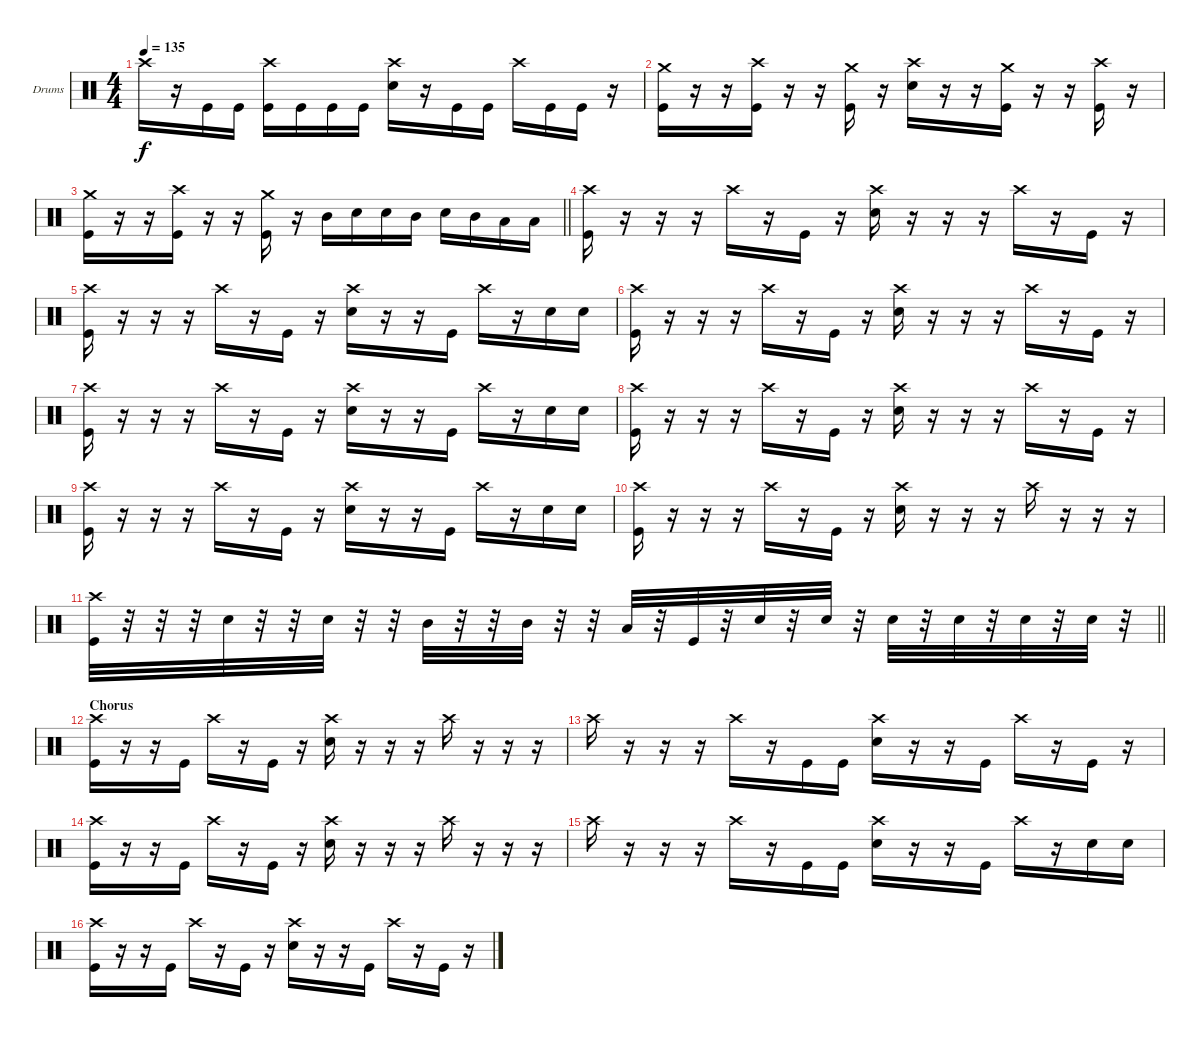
\bracketExtendMode groupsimilarinstruments
\firstSystemTrackNameOrientation horizontal
\otherSystemsTrackNameOrientation horizontal
\track ("Drumkit" "Drums") {instrument percussion}
\staff {score}
\articulation defaults
\ts (4 4)
\tempo 135
\clef neutral
\ks c "Crash high (hit)".16{dy f}
r.16 "Kick (hit)".16 "Kick (hit)".16 ("Crash high (hit)" "Kick (hit)").16 "Kick (hit)".16 "Kick (hit)".16 "Kick (hit)".16 ("Crash high (hit)" "Snare (hit) 2").16 r.16 "Kick (hit)".16 "Kick (hit)".16 "Crash high (hit)".16 "Kick (hit)".16 "Kick (hit)".16 r.16 |
("Crash medium (hit)" "Kick (hit)").16 r.16 r.16 ("Crash high (hit)" "Kick (hit)").16 r.16 r.16 ("Crash medium (hit)" "Kick (hit)").16 r.16 ("Crash high (hit)" "Snare (hit) 2").16 r.16 r.16 ("Crash medium (hit)" "Kick (hit)").16 r.16 r.16 ("Crash high (hit)" "Kick (hit)").16 r.16 |
\barLineRight lightlight
("Crash medium (hit)" "Kick (hit)").16 r.16 r.16 ("Crash high (hit)" "Kick (hit)").16 r.16 r.16 ("Crash medium (hit)" "Kick (hit)").16 r.16 "Mid Tom (hit)".16 "Snare (hit) 2".16 "Snare (hit) 2".16 "Mid Tom (hit)".16 "Snare (hit) 2".16 "Mid Tom (hit)".16 "Low Tom (hit)".16 "Low Tom (hit)".16 |
("Crash high (hit)" "Kick (hit)").16 r.16 r.16 r.16 "Crash high (hit)".16 r.16 "Kick (hit)".16 r.16 ("Crash high (hit)" "Snare (hit) 2").16 r.16 r.16 r.16 "Crash high (hit)".16 r.16 "Kick (hit)".16 r.16 |
("Crash high (hit)" "Kick (hit)").16 r.16 r.16 r.16 "Crash high (hit)".16 r.16 "Kick (hit)".16 r.16 ("Crash high (hit)" "Snare (hit) 2").16 r.16 r.16 "Kick (hit)".16 "Crash high (hit)".16 r.16 "Snare (hit) 2".16 "Snare (hit) 2".16 |
("Crash high (hit)" "Kick (hit)").16 r.16 r.16 r.16 "Crash high (hit)".16 r.16 "Kick (hit)".16 r.16 ("Crash high (hit)" "Snare (hit) 2").16 r.16 r.16 r.16 "Crash high (hit)".16 r.16 "Kick (hit)".16 r.16 |
("Crash high (hit)" "Kick (hit)").16 r.16 r.16 r.16 "Crash high (hit)".16 r.16 "Kick (hit)".16 r.16 ("Crash high (hit)" "Snare (hit) 2").16 r.16 r.16 "Kick (hit)".16 "Crash high (hit)".16 r.16 "Snare (hit) 2".16 "Snare (hit) 2".16 |
("Crash high (hit)" "Kick (hit)").16 r.16 r.16 r.16 "Crash high (hit)".16 r.16 "Kick (hit)".16 r.16 ("Crash high (hit)" "Snare (hit) 2").16 r.16 r.16 r.16 "Crash high (hit)".16 r.16 "Kick (hit)".16 r.16 |
("Crash high (hit)" "Kick (hit)").16 r.16 r.16 r.16 "Crash high (hit)".16 r.16 "Kick (hit)".16 r.16 ("Crash high (hit)" "Snare (hit) 2").16 r.16 r.16 "Kick (hit)".16 "Crash high (hit)".16 r.16 "Snare (hit) 2".16 "Snare (hit) 2".16 |
("Crash high (hit)" "Kick (hit)").16 r.16 r.16 r.16 "Crash high (hit)".16 r.16 "Kick (hit)".16 r.16 ("Crash high (hit)" "Snare (hit) 2").16 r.16 r.16 r.16 "Crash high (hit)".16 r.16 r.16 r.16 |
\barLineRight lightlight
("Crash high (hit)" "Kick (hit)").32 r.32 r.32 r.32 "Snare (hit) 2".32 r.32 r.32 "Snare (hit) 2".32 r.32 r.32 "Mid Tom (hit)".32 r.32 r.32 "Mid Tom (hit)".32 r.32 r.32 "Low Tom (hit)".32 r.32 "Kick (hit)".32 r.32 "Snare (hit) 2".32 r.32 "Snare (hit) 2".32 r.32 "Snare (hit) 2".32 r.32 "Snare (hit) 2".32 r.32 "Snare (hit) 2".32 r.32 "Snare (hit) 2".32 r.32 |
\section ("" "Chorus")
("Crash high (hit)" "Kick (hit)").16 r.16 r.16 "Kick (hit)".16 "Crash high (hit)".16 r.16 "Kick (hit)".16 r.16 ("Crash high (hit)" "Snare (hit) 2").16 r.16 r.16 r.16 "Crash high (hit)".16 r.16 r.16 r.16 |
"Crash high (hit)".16 r.16 r.16 r.16 "Crash high (hit)".16 r.16 "Kick (hit)".16 "Kick (hit)".16 ("Crash high (hit)" "Snare (hit) 2").16 r.16 r.16 "Kick (hit)".16 "Crash high (hit)".16 r.16 "Kick (hit)".16 r.16 |
("Crash high (hit)" "Kick (hit)").16 r.16 r.16 "Kick (hit)".16 "Crash high (hit)".16 r.16 "Kick (hit)".16 r.16 ("Crash high (hit)" "Snare (hit) 2").16 r.16 r.16 r.16 "Crash high (hit)".16 r.16 r.16 r.16 |
"Crash high (hit)".16 r.16 r.16 r.16 "Crash high (hit)".16 r.16 "Kick (hit)".16 "Kick (hit)".16 ("Crash high (hit)" "Snare (hit) 2").16 r.16 r.16 "Kick (hit)".16 "Crash high (hit)".16 r.16 "Snare (hit) 2".16 "Snare (hit) 2".16 |
("Crash high (hit)" "Kick (hit)").16 r.16 r.16 "Kick (hit)".16 "Crash high (hit)".16 r.16 "Kick (hit)".16 r.16 ("Crash high (hit)" "Snare (hit) 2").16 r.16 r.16 "Kick (hit)".16 "Crash high (hit)".16 r.16 "Kick (hit)".16 r.16
